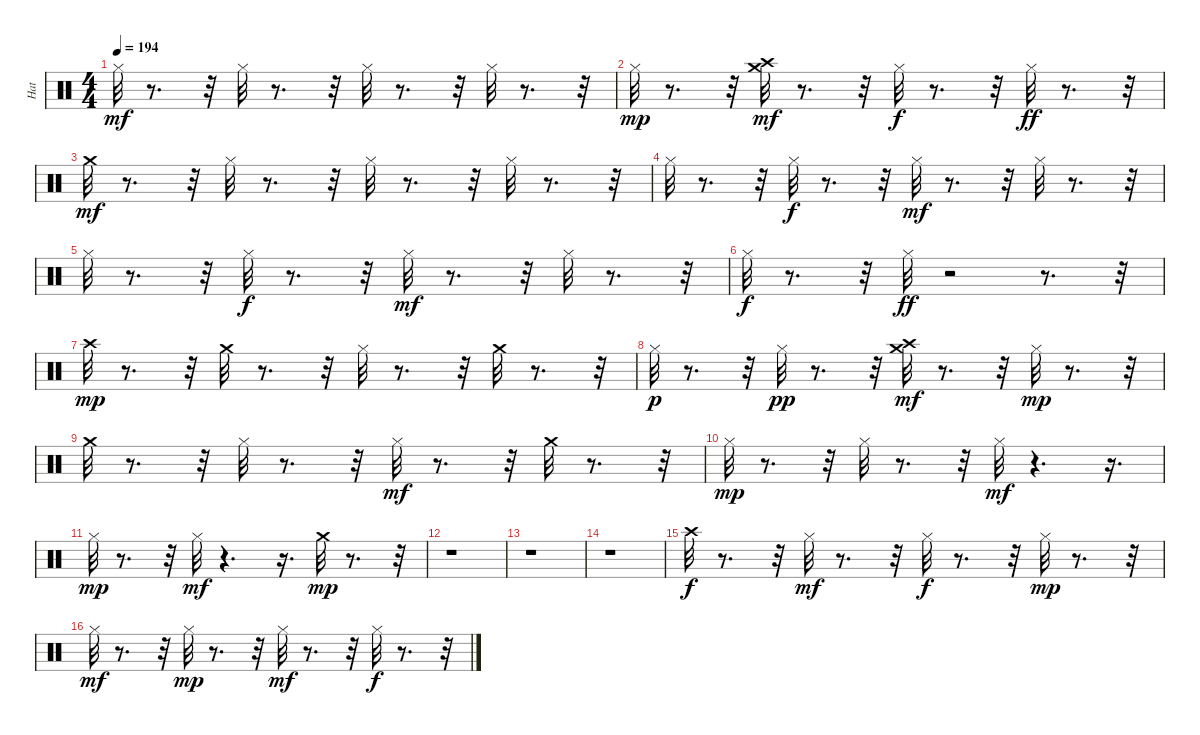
\track ("Hat" "Hat") {instrument percussion}
\staff {score}
\articulation defaults
\ts (4 4)
\tempo 194
\clef neutral
\ks c "Hi-Hat (closed)".32{dy mf}
r.8{d} r.32 "Hi-Hat (closed)".32 r.8{d} r.32 "Hi-Hat (closed)".32 r.8{d} r.32 "Hi-Hat (closed)".32 r.8{d} r.32 |
"Hi-Hat (closed)".32{dy mp} r.8{d} r.32 ("Crash medium (hit)" "Crash high (hit)").32{dy mf} r.8{d} r.32 "Hi-Hat (closed)".32{dy f} r.8{d} r.32 "Hi-Hat (closed)".32{dy ff} r.8{d} r.32 |
"Crash medium (hit)".32{dy mf} r.8{d} r.32 "Hi-Hat (closed)".32 r.8{d} r.32 "Hi-Hat (closed)".32 r.8{d} r.32 "Hi-Hat (closed)".32 r.8{d} r.32 |
"Hi-Hat (closed)".32 r.8{d} r.32 "Hi-Hat (closed)".32{dy f} r.8{d} r.32 "Hi-Hat (closed)".32{dy mf} r.8{d} r.32 "Hi-Hat (closed)".32 r.8{d} r.32 |
"Hi-Hat (closed)".32 r.8{d} r.32 "Hi-Hat (closed)".32{dy f} r.8{d} r.32 "Hi-Hat (closed)".32{dy mf} r.8{d} r.32 "Hi-Hat (closed)".32 r.8{d} r.32 |
"Hi-Hat (closed)".32{dy f} r.8{d} r.32 "Hi-Hat (closed)".32{dy ff} r.2 r.8{d} r.32 |
"Crash high (hit)".32{dy mp} r.8{d} r.32 "Crash medium (hit)".32 r.8{d} r.32 "Hi-Hat (closed)".32 r.8{d} r.32 "Crash medium (hit)".32 r.8{d} r.32 |
"Hi-Hat (closed)".32{dy p} r.8{d} r.32 "Hi-Hat (closed)".32{dy pp} r.8{d} r.32 ("Crash medium (hit)" "Crash high (hit)").32{dy mf} r.8{d} r.32 "Hi-Hat (closed)".32{dy mp} r.8{d} r.32 |
"Crash medium (hit)".32 r.8{d} r.32 "Hi-Hat (closed)".32 r.8{d} r.32 "Hi-Hat (closed)".32{dy mf} r.8{d} r.32 "Crash medium (hit)".32 r.8{d} r.32 |
"Hi-Hat (closed)".32{dy mp} r.8{d} r.32 "Hi-Hat (closed)".32 r.8{d} r.32 "Hi-Hat (closed)".32{dy mf} r.4{d} r.16{d} |
"Hi-Hat (closed)".32{dy mp} r.8{d} r.32 "Hi-Hat (closed)".32{dy mf} r.4{d} r.16{d} "Crash medium (hit)".32{dy mp} r.8{d} r.32 |
r.1 |
r.1 |
r.1 |
"Crash high (hit)".32{dy f} r.8{d} r.32 "Hi-Hat (closed)".32{dy mf} r.8{d} r.32 "Hi-Hat (closed)".32{dy f} r.8{d} r.32 "Hi-Hat (closed)".32{dy mp} r.8{d} r.32 |
"Hi-Hat (closed)".32{dy mf} r.8{d} r.32 "Hi-Hat (closed)".32{dy mp} r.8{d} r.32 "Hi-Hat (closed)".32{dy mf} r.8{d} r.32 "Hi-Hat (closed)".32{dy f} r.8{d} r.32
